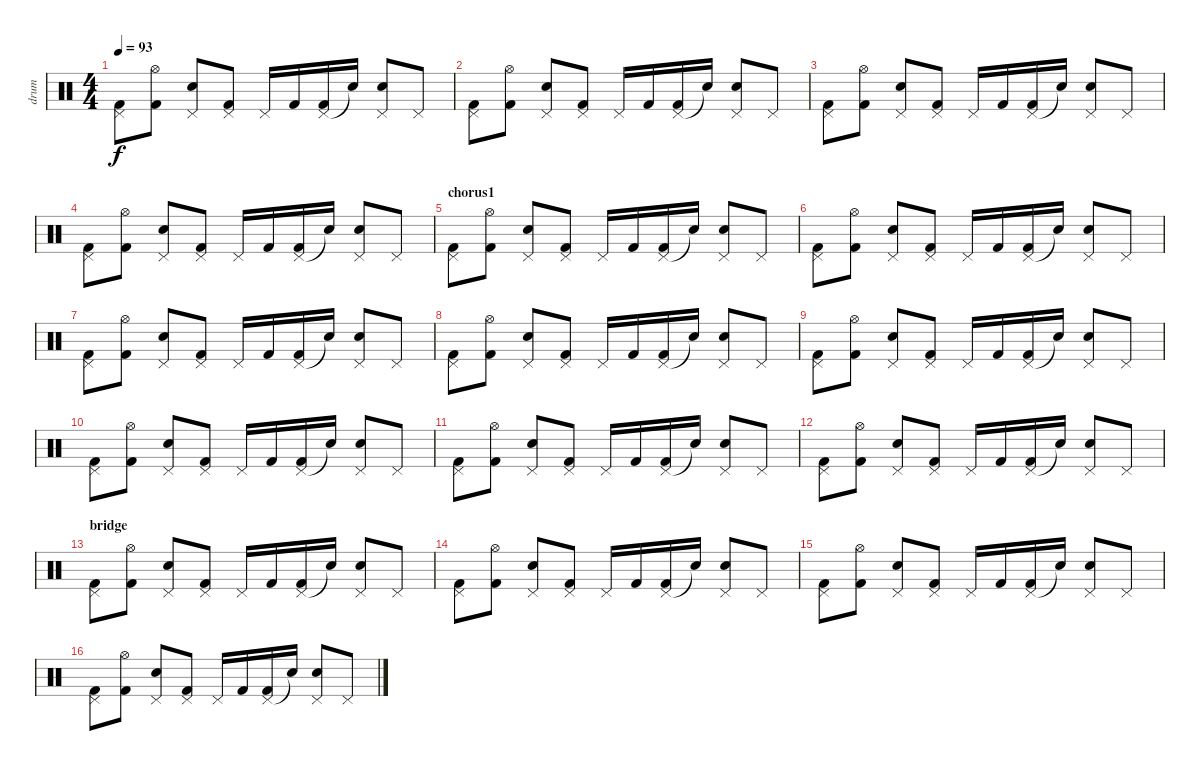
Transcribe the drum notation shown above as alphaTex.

\track ("drum" "drum") {instrument percussion}
\staff {score}
\articulation defaults
\ts (4 4)
\tempo 93
\clef neutral
\ks c
("Pedal Hi-Hat (hit)" "Kick (hit) 2").8{dy f} ("Hi-Hat (open)" "Kick (hit) 2").8 ("Pedal Hi-Hat (hit)" "Snare (hit) 2").8 ("Pedal Hi-Hat (hit)" "Kick (hit) 2").8 "Pedal Hi-Hat (hit)".16 "Kick (hit) 2".16 ("Pedal Hi-Hat (hit)" "Kick (hit) 2").16 "Snare (hit)"{t}.16 ("Pedal Hi-Hat (hit)" "Snare (hit) 2").8 "Pedal Hi-Hat (hit)".8 |
("Pedal Hi-Hat (hit)" "Kick (hit) 2").8 ("Hi-Hat (open)" "Kick (hit) 2").8 ("Pedal Hi-Hat (hit)" "Snare (hit) 2").8 ("Pedal Hi-Hat (hit)" "Kick (hit) 2").8 "Pedal Hi-Hat (hit)".16 "Kick (hit) 2".16 ("Pedal Hi-Hat (hit)" "Kick (hit) 2").16 "Snare (hit)"{t}.16 ("Pedal Hi-Hat (hit)" "Snare (hit) 2").8 "Pedal Hi-Hat (hit)".8 |
("Pedal Hi-Hat (hit)" "Kick (hit) 2").8 ("Hi-Hat (open)" "Kick (hit) 2").8 ("Pedal Hi-Hat (hit)" "Snare (hit) 2").8 ("Pedal Hi-Hat (hit)" "Kick (hit) 2").8 "Pedal Hi-Hat (hit)".16 "Kick (hit) 2".16 ("Pedal Hi-Hat (hit)" "Kick (hit) 2").16 "Snare (hit)"{t}.16 ("Pedal Hi-Hat (hit)" "Snare (hit) 2").8 "Pedal Hi-Hat (hit)".8 |
("Pedal Hi-Hat (hit)" "Kick (hit) 2").8 ("Hi-Hat (open)" "Kick (hit) 2").8 ("Pedal Hi-Hat (hit)" "Snare (hit) 2").8 ("Pedal Hi-Hat (hit)" "Kick (hit) 2").8 "Pedal Hi-Hat (hit)".16 "Kick (hit) 2".16 ("Pedal Hi-Hat (hit)" "Kick (hit) 2").16 "Snare (hit)"{t}.16 ("Pedal Hi-Hat (hit)" "Snare (hit) 2").8 "Pedal Hi-Hat (hit)".8 |
\section ("" "chorus1")
("Pedal Hi-Hat (hit)" "Kick (hit) 2").8 ("Hi-Hat (open)" "Kick (hit) 2").8 ("Pedal Hi-Hat (hit)" "Snare (hit) 2").8 ("Pedal Hi-Hat (hit)" "Kick (hit) 2").8 "Pedal Hi-Hat (hit)".16 "Kick (hit) 2".16 ("Pedal Hi-Hat (hit)" "Kick (hit) 2").16 "Snare (hit)"{t}.16 ("Pedal Hi-Hat (hit)" "Snare (hit) 2").8 "Pedal Hi-Hat (hit)".8 |
("Pedal Hi-Hat (hit)" "Kick (hit) 2").8 ("Hi-Hat (open)" "Kick (hit) 2").8 ("Pedal Hi-Hat (hit)" "Snare (hit) 2").8 ("Pedal Hi-Hat (hit)" "Kick (hit) 2").8 "Pedal Hi-Hat (hit)".16 "Kick (hit) 2".16 ("Pedal Hi-Hat (hit)" "Kick (hit) 2").16 "Snare (hit)"{t}.16 ("Pedal Hi-Hat (hit)" "Snare (hit) 2").8 "Pedal Hi-Hat (hit)".8 |
("Pedal Hi-Hat (hit)" "Kick (hit) 2").8 ("Hi-Hat (open)" "Kick (hit) 2").8 ("Pedal Hi-Hat (hit)" "Snare (hit) 2").8 ("Pedal Hi-Hat (hit)" "Kick (hit) 2").8 "Pedal Hi-Hat (hit)".16 "Kick (hit) 2".16 ("Pedal Hi-Hat (hit)" "Kick (hit) 2").16 "Snare (hit)"{t}.16 ("Pedal Hi-Hat (hit)" "Snare (hit) 2").8 "Pedal Hi-Hat (hit)".8 |
("Pedal Hi-Hat (hit)" "Kick (hit) 2").8 ("Hi-Hat (open)" "Kick (hit) 2").8 ("Pedal Hi-Hat (hit)" "Snare (hit) 2").8 ("Pedal Hi-Hat (hit)" "Kick (hit) 2").8 "Pedal Hi-Hat (hit)".16 "Kick (hit) 2".16 ("Pedal Hi-Hat (hit)" "Kick (hit) 2").16 "Snare (hit)"{t}.16 ("Pedal Hi-Hat (hit)" "Snare (hit) 2").8 "Pedal Hi-Hat (hit)".8 |
("Pedal Hi-Hat (hit)" "Kick (hit) 2").8 ("Hi-Hat (open)" "Kick (hit) 2").8 ("Pedal Hi-Hat (hit)" "Snare (hit) 2").8 ("Pedal Hi-Hat (hit)" "Kick (hit) 2").8 "Pedal Hi-Hat (hit)".16 "Kick (hit) 2".16 ("Pedal Hi-Hat (hit)" "Kick (hit) 2").16 "Snare (hit)"{t}.16 ("Pedal Hi-Hat (hit)" "Snare (hit) 2").8 "Pedal Hi-Hat (hit)".8 |
("Pedal Hi-Hat (hit)" "Kick (hit) 2").8 ("Hi-Hat (open)" "Kick (hit) 2").8 ("Pedal Hi-Hat (hit)" "Snare (hit) 2").8 ("Pedal Hi-Hat (hit)" "Kick (hit) 2").8 "Pedal Hi-Hat (hit)".16 "Kick (hit) 2".16 ("Pedal Hi-Hat (hit)" "Kick (hit) 2").16 "Snare (hit)"{t}.16 ("Pedal Hi-Hat (hit)" "Snare (hit) 2").8 "Pedal Hi-Hat (hit)".8 |
("Pedal Hi-Hat (hit)" "Kick (hit) 2").8 ("Hi-Hat (open)" "Kick (hit) 2").8 ("Pedal Hi-Hat (hit)" "Snare (hit) 2").8 ("Pedal Hi-Hat (hit)" "Kick (hit) 2").8 "Pedal Hi-Hat (hit)".16 "Kick (hit) 2".16 ("Pedal Hi-Hat (hit)" "Kick (hit) 2").16 "Snare (hit)"{t}.16 ("Pedal Hi-Hat (hit)" "Snare (hit) 2").8 "Pedal Hi-Hat (hit)".8 |
("Pedal Hi-Hat (hit)" "Kick (hit) 2").8 ("Hi-Hat (open)" "Kick (hit) 2").8 ("Pedal Hi-Hat (hit)" "Snare (hit) 2").8 ("Pedal Hi-Hat (hit)" "Kick (hit) 2").8 "Pedal Hi-Hat (hit)".16 "Kick (hit) 2".16 ("Pedal Hi-Hat (hit)" "Kick (hit) 2").16 "Snare (hit)"{t}.16 ("Pedal Hi-Hat (hit)" "Snare (hit) 2").8 "Pedal Hi-Hat (hit)".8 |
\section ("" "bridge")
("Pedal Hi-Hat (hit)" "Kick (hit) 2").8 ("Hi-Hat (open)" "Kick (hit) 2").8 ("Pedal Hi-Hat (hit)" "Snare (hit) 2").8 ("Pedal Hi-Hat (hit)" "Kick (hit) 2").8 "Pedal Hi-Hat (hit)".16 "Kick (hit) 2".16 ("Pedal Hi-Hat (hit)" "Kick (hit) 2").16 "Snare (hit)"{t}.16 ("Pedal Hi-Hat (hit)" "Snare (hit) 2").8 "Pedal Hi-Hat (hit)".8 |
("Pedal Hi-Hat (hit)" "Kick (hit) 2").8 ("Hi-Hat (open)" "Kick (hit) 2").8 ("Pedal Hi-Hat (hit)" "Snare (hit) 2").8 ("Pedal Hi-Hat (hit)" "Kick (hit) 2").8 "Pedal Hi-Hat (hit)".16 "Kick (hit) 2".16 ("Pedal Hi-Hat (hit)" "Kick (hit) 2").16 "Snare (hit)"{t}.16 ("Pedal Hi-Hat (hit)" "Snare (hit) 2").8 "Pedal Hi-Hat (hit)".8 |
("Pedal Hi-Hat (hit)" "Kick (hit) 2").8 ("Hi-Hat (open)" "Kick (hit) 2").8 ("Pedal Hi-Hat (hit)" "Snare (hit) 2").8 ("Pedal Hi-Hat (hit)" "Kick (hit) 2").8 "Pedal Hi-Hat (hit)".16 "Kick (hit) 2".16 ("Pedal Hi-Hat (hit)" "Kick (hit) 2").16 "Snare (hit)"{t}.16 ("Pedal Hi-Hat (hit)" "Snare (hit) 2").8 "Pedal Hi-Hat (hit)".8 |
("Pedal Hi-Hat (hit)" "Kick (hit) 2").8 ("Hi-Hat (open)" "Kick (hit) 2").8 ("Pedal Hi-Hat (hit)" "Snare (hit) 2").8 ("Pedal Hi-Hat (hit)" "Kick (hit) 2").8 "Pedal Hi-Hat (hit)".16 "Kick (hit) 2".16 ("Pedal Hi-Hat (hit)" "Kick (hit) 2").16 "Snare (hit)"{t}.16 ("Pedal Hi-Hat (hit)" "Snare (hit) 2").8 "Pedal Hi-Hat (hit)".8
